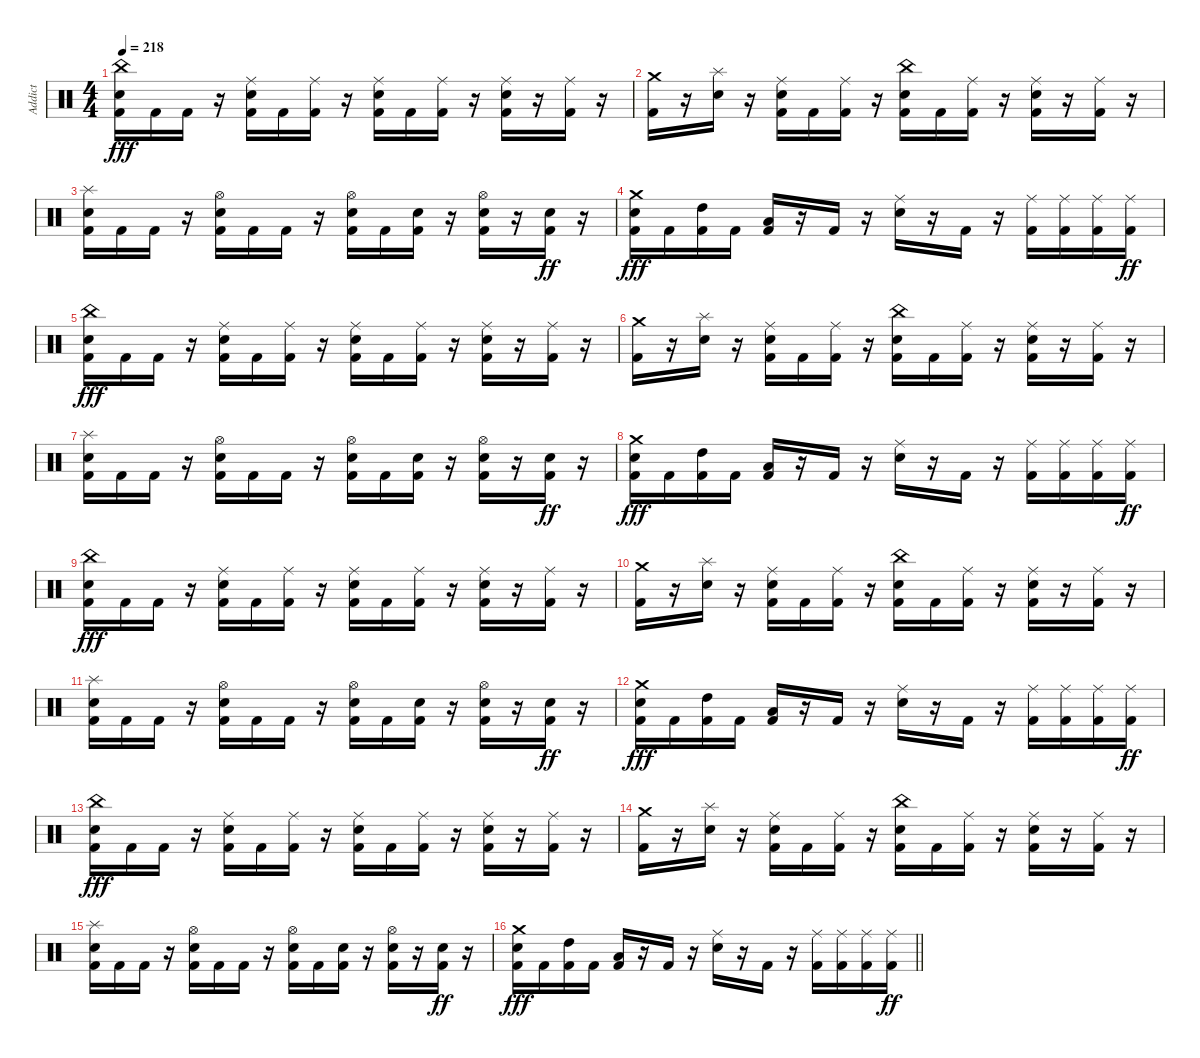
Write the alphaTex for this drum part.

\track ("Addict" "Addict") {instrument percussion}
\staff {score}
\articulation defaults
\ts (4 4)
\tempo 218
\clef neutral
\ks c
("Kick (hit) 2" "Snare (hit) 2" "China (hit)").16{dy fff} "Kick (hit) 2".16 "Kick (hit) 2".16 r.16 ("Kick (hit) 2" "Snare (hit) 2" "Ride (middle)").16 "Kick (hit) 2".16 ("Kick (hit) 2" "Ride (middle)").16 r.16 ("Kick (hit) 2" "Snare (hit) 2" "Ride (middle)").16 "Kick (hit) 2".16 ("Kick (hit) 2" "Ride (middle)").16 r.16 ("Kick (hit) 2" "Snare (hit) 2" "Ride (middle)").16 r.16 ("Kick (hit) 2" "Ride (middle)").16 r.16 |
("Kick (hit) 2" "Crash medium (hit)").16 r.16 ("Snare (hit) 2" "Splash (hit)").16 r.16 ("Kick (hit) 2" "Snare (hit) 2" "Ride (middle)").16 "Kick (hit) 2".16 ("Kick (hit) 2" "Ride (middle)").16 r.16 ("Kick (hit) 2" "Snare (hit) 2" "China (hit)").16 "Kick (hit) 2".16 ("Kick (hit) 2" "Ride (middle)").16 r.16 ("Kick (hit) 2" "Snare (hit) 2" "Ride (middle)").16 r.16 ("Kick (hit) 2" "Ride (middle)").16 r.16 |
("Kick (hit) 2" "Snare (hit) 2" "Splash (hit)").16 "Kick (hit) 2".16 "Kick (hit) 2".16 r.16 ("Kick (hit) 2" "Snare (hit) 2" "Hi-Hat (open)").16 "Kick (hit) 2".16 "Kick (hit) 2".16 r.16 ("Kick (hit) 2" "Snare (hit) 2" "Hi-Hat (open)").16 "Kick (hit) 2".16 ("Kick (hit) 2" "Snare (hit) 2").16 r.16 ("Kick (hit) 2" "Snare (hit) 2" "Hi-Hat (open)").16 r.16 ("Kick (hit) 2" "Snare (hit) 2").16{dy ff} r.16 |
("Kick (hit) 2" "Snare (hit) 2" "Crash medium (hit)").16{dy fff} "Kick (hit) 2".16 ("Kick (hit) 2" "High Tom (hit)").16 "Kick (hit) 2".16 ("Kick (hit) 2" "Low Tom (hit)").16 r.16 "Kick (hit) 2".16 r.16 ("Snare (hit) 2" "Ride (middle)").16 r.16 "Kick (hit) 2".16 r.16 ("Kick (hit) 2" "Ride (middle)").16 ("Kick (hit) 2" "Ride (middle)").16 ("Kick (hit) 2" "Ride (middle)").16 ("Kick (hit) 2" "Ride (middle)").16{dy ff} |
("Kick (hit) 2" "Snare (hit) 2" "China (hit)").16{dy fff} "Kick (hit) 2".16 "Kick (hit) 2".16 r.16 ("Kick (hit) 2" "Snare (hit) 2" "Ride (middle)").16 "Kick (hit) 2".16 ("Kick (hit) 2" "Ride (middle)").16 r.16 ("Kick (hit) 2" "Snare (hit) 2" "Ride (middle)").16 "Kick (hit) 2".16 ("Kick (hit) 2" "Ride (middle)").16 r.16 ("Kick (hit) 2" "Snare (hit) 2" "Ride (middle)").16 r.16 ("Kick (hit) 2" "Ride (middle)").16 r.16 |
("Kick (hit) 2" "Crash medium (hit)").16 r.16 ("Snare (hit) 2" "Splash (hit)").16 r.16 ("Kick (hit) 2" "Snare (hit) 2" "Ride (middle)").16 "Kick (hit) 2".16 ("Kick (hit) 2" "Ride (middle)").16 r.16 ("Kick (hit) 2" "Snare (hit) 2" "China (hit)").16 "Kick (hit) 2".16 ("Kick (hit) 2" "Ride (middle)").16 r.16 ("Kick (hit) 2" "Snare (hit) 2" "Ride (middle)").16 r.16 ("Kick (hit) 2" "Ride (middle)").16 r.16 |
("Kick (hit) 2" "Snare (hit) 2" "Splash (hit)").16 "Kick (hit) 2".16 "Kick (hit) 2".16 r.16 ("Kick (hit) 2" "Snare (hit) 2" "Hi-Hat (open)").16 "Kick (hit) 2".16 "Kick (hit) 2".16 r.16 ("Kick (hit) 2" "Snare (hit) 2" "Hi-Hat (open)").16 "Kick (hit) 2".16 ("Kick (hit) 2" "Snare (hit) 2").16 r.16 ("Kick (hit) 2" "Snare (hit) 2" "Hi-Hat (open)").16 r.16 ("Kick (hit) 2" "Snare (hit) 2").16{dy ff} r.16 |
("Kick (hit) 2" "Snare (hit) 2" "Crash medium (hit)").16{dy fff} "Kick (hit) 2".16 ("Kick (hit) 2" "High Tom (hit)").16 "Kick (hit) 2".16 ("Kick (hit) 2" "Low Tom (hit)").16 r.16 "Kick (hit) 2".16 r.16 ("Snare (hit) 2" "Ride (middle)").16 r.16 "Kick (hit) 2".16 r.16 ("Kick (hit) 2" "Ride (middle)").16 ("Kick (hit) 2" "Ride (middle)").16 ("Kick (hit) 2" "Ride (middle)").16 ("Kick (hit) 2" "Ride (middle)").16{dy ff} |
("Kick (hit) 2" "Snare (hit) 2" "China (hit)").16{dy fff} "Kick (hit) 2".16 "Kick (hit) 2".16 r.16 ("Kick (hit) 2" "Snare (hit) 2" "Ride (middle)").16 "Kick (hit) 2".16 ("Kick (hit) 2" "Ride (middle)").16 r.16 ("Kick (hit) 2" "Snare (hit) 2" "Ride (middle)").16 "Kick (hit) 2".16 ("Kick (hit) 2" "Ride (middle)").16 r.16 ("Kick (hit) 2" "Snare (hit) 2" "Ride (middle)").16 r.16 ("Kick (hit) 2" "Ride (middle)").16 r.16 |
("Kick (hit) 2" "Crash medium (hit)").16 r.16 ("Snare (hit) 2" "Splash (hit)").16 r.16 ("Kick (hit) 2" "Snare (hit) 2" "Ride (middle)").16 "Kick (hit) 2".16 ("Kick (hit) 2" "Ride (middle)").16 r.16 ("Kick (hit) 2" "Snare (hit) 2" "China (hit)").16 "Kick (hit) 2".16 ("Kick (hit) 2" "Ride (middle)").16 r.16 ("Kick (hit) 2" "Snare (hit) 2" "Ride (middle)").16 r.16 ("Kick (hit) 2" "Ride (middle)").16 r.16 |
("Kick (hit) 2" "Snare (hit) 2" "Splash (hit)").16 "Kick (hit) 2".16 "Kick (hit) 2".16 r.16 ("Kick (hit) 2" "Snare (hit) 2" "Hi-Hat (open)").16 "Kick (hit) 2".16 "Kick (hit) 2".16 r.16 ("Kick (hit) 2" "Snare (hit) 2" "Hi-Hat (open)").16 "Kick (hit) 2".16 ("Kick (hit) 2" "Snare (hit) 2").16 r.16 ("Kick (hit) 2" "Snare (hit) 2" "Hi-Hat (open)").16 r.16 ("Kick (hit) 2" "Snare (hit) 2").16{dy ff} r.16 |
("Kick (hit) 2" "Snare (hit) 2" "Crash medium (hit)").16{dy fff} "Kick (hit) 2".16 ("Kick (hit) 2" "High Tom (hit)").16 "Kick (hit) 2".16 ("Kick (hit) 2" "Low Tom (hit)").16 r.16 "Kick (hit) 2".16 r.16 ("Snare (hit) 2" "Ride (middle)").16 r.16 "Kick (hit) 2".16 r.16 ("Kick (hit) 2" "Ride (middle)").16 ("Kick (hit) 2" "Ride (middle)").16 ("Kick (hit) 2" "Ride (middle)").16 ("Kick (hit) 2" "Ride (middle)").16{dy ff} |
("Kick (hit) 2" "Snare (hit) 2" "China (hit)").16{dy fff} "Kick (hit) 2".16 "Kick (hit) 2".16 r.16 ("Kick (hit) 2" "Snare (hit) 2" "Ride (middle)").16 "Kick (hit) 2".16 ("Kick (hit) 2" "Ride (middle)").16 r.16 ("Kick (hit) 2" "Snare (hit) 2" "Ride (middle)").16 "Kick (hit) 2".16 ("Kick (hit) 2" "Ride (middle)").16 r.16 ("Kick (hit) 2" "Snare (hit) 2" "Ride (middle)").16 r.16 ("Kick (hit) 2" "Ride (middle)").16 r.16 |
("Kick (hit) 2" "Crash medium (hit)").16 r.16 ("Snare (hit) 2" "Splash (hit)").16 r.16 ("Kick (hit) 2" "Snare (hit) 2" "Ride (middle)").16 "Kick (hit) 2".16 ("Kick (hit) 2" "Ride (middle)").16 r.16 ("Kick (hit) 2" "Snare (hit) 2" "China (hit)").16 "Kick (hit) 2".16 ("Kick (hit) 2" "Ride (middle)").16 r.16 ("Kick (hit) 2" "Snare (hit) 2" "Ride (middle)").16 r.16 ("Kick (hit) 2" "Ride (middle)").16 r.16 |
("Kick (hit) 2" "Snare (hit) 2" "Splash (hit)").16 "Kick (hit) 2".16 "Kick (hit) 2".16 r.16 ("Kick (hit) 2" "Snare (hit) 2" "Hi-Hat (open)").16 "Kick (hit) 2".16 "Kick (hit) 2".16 r.16 ("Kick (hit) 2" "Snare (hit) 2" "Hi-Hat (open)").16 "Kick (hit) 2".16 ("Kick (hit) 2" "Snare (hit) 2").16 r.16 ("Kick (hit) 2" "Snare (hit) 2" "Hi-Hat (open)").16 r.16 ("Kick (hit) 2" "Snare (hit) 2").16{dy ff} r.16 |
\barLineRight lightlight
("Kick (hit) 2" "Snare (hit) 2" "Crash medium (hit)").16{dy fff} "Kick (hit) 2".16 ("Kick (hit) 2" "High Tom (hit)").16 "Kick (hit) 2".16 ("Kick (hit) 2" "Low Tom (hit)").16 r.16 "Kick (hit) 2".16 r.16 ("Snare (hit) 2" "Ride (middle)").16 r.16 "Kick (hit) 2".16 r.16 ("Kick (hit) 2" "Ride (middle)").16 ("Kick (hit) 2" "Ride (middle)").16 ("Kick (hit) 2" "Ride (middle)").16 ("Kick (hit) 2" "Ride (middle)").16{dy ff}
